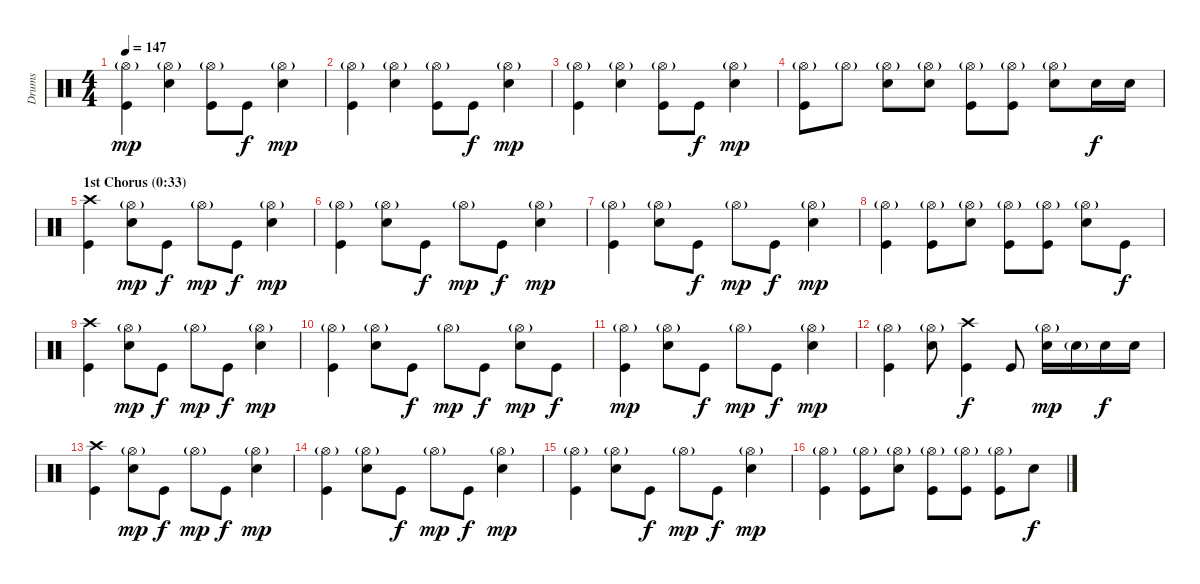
\track ("Drums" "Drums") {instrument percussion}
\staff {score}
\articulation defaults
\ts (4 4)
\tempo 147
\clef neutral
\ks c
("Hi-Hat (open)"{g} "Kick (hit)").4{dy mp} ("Hi-Hat (open)"{g} "Snare (hit) 2").4 ("Hi-Hat (open)"{g} "Kick (hit)").8 "Kick (hit)".8{dy f} ("Hi-Hat (open)"{g} "Snare (hit) 2").4{dy mp} |
("Hi-Hat (open)"{g} "Kick (hit)").4 ("Hi-Hat (open)"{g} "Snare (hit) 2").4 ("Hi-Hat (open)"{g} "Kick (hit)").8 "Kick (hit)".8{dy f} ("Hi-Hat (open)"{g} "Snare (hit) 2").4{dy mp} |
("Hi-Hat (open)"{g} "Kick (hit)").4 ("Hi-Hat (open)"{g} "Snare (hit) 2").4 ("Hi-Hat (open)"{g} "Kick (hit)").8 "Kick (hit)".8{dy f} ("Hi-Hat (open)"{g} "Snare (hit) 2").4{dy mp} |
("Hi-Hat (open)"{g} "Kick (hit)").8 "Hi-Hat (open)"{g}.8 ("Hi-Hat (open)"{g} "Snare (hit) 2").8 ("Hi-Hat (open)"{g} "Snare (hit) 2").8 ("Hi-Hat (open)"{g} "Kick (hit)").8 ("Hi-Hat (open)"{g} "Kick (hit)").8 ("Hi-Hat (open)"{g} "Snare (hit) 2").8 "Snare (hit) 2".16{dy f} "Snare (hit) 2".16 |
\section ("" "1st Chorus (0:33)")
("Crash high (hit)" "Kick (hit)").4 ("Hi-Hat (open)"{g} "Snare (hit) 2").8{dy mp} "Kick (hit)".8{dy f} "Hi-Hat (open)"{g}.8{dy mp} "Kick (hit)".8{dy f} ("Hi-Hat (open)"{g} "Snare (hit) 2").4{dy mp} |
("Hi-Hat (open)"{g} "Kick (hit)").4 ("Hi-Hat (open)"{g} "Snare (hit) 2").8 "Kick (hit)".8{dy f} "Hi-Hat (open)"{g}.8{dy mp} "Kick (hit)".8{dy f} ("Hi-Hat (open)"{g} "Snare (hit) 2").4{dy mp} |
("Hi-Hat (open)"{g} "Kick (hit)").4 ("Hi-Hat (open)"{g} "Snare (hit) 2").8 "Kick (hit)".8{dy f} "Hi-Hat (open)"{g}.8{dy mp} "Kick (hit)".8{dy f} ("Hi-Hat (open)"{g} "Snare (hit) 2").4{dy mp} |
("Hi-Hat (open)"{g} "Kick (hit)").4 ("Hi-Hat (open)"{g} "Kick (hit)").8 ("Hi-Hat (open)"{g} "Snare (hit) 2").8 ("Hi-Hat (open)"{g} "Kick (hit)").8 ("Hi-Hat (open)"{g} "Kick (hit)").8 ("Hi-Hat (open)"{g} "Snare (hit) 2").8 "Kick (hit)".8{dy f} |
("Crash high (hit)" "Kick (hit)").4 ("Hi-Hat (open)"{g} "Snare (hit) 2").8{dy mp} "Kick (hit)".8{dy f} "Hi-Hat (open)"{g}.8{dy mp} "Kick (hit)".8{dy f} ("Hi-Hat (open)"{g} "Snare (hit) 2").4{dy mp} |
("Hi-Hat (open)"{g} "Kick (hit)").4 ("Hi-Hat (open)"{g} "Snare (hit) 2").8 "Kick (hit)".8{dy f} "Hi-Hat (open)"{g}.8{dy mp} "Kick (hit)".8{dy f} ("Hi-Hat (open)"{g} "Snare (hit) 2").8{dy mp} "Kick (hit)".8{dy f} |
("Hi-Hat (open)"{g} "Kick (hit)").4{dy mp} ("Hi-Hat (open)"{g} "Snare (hit) 2").8 "Kick (hit)".8{dy f} "Hi-Hat (open)"{g}.8{dy mp} "Kick (hit)".8{dy f} ("Hi-Hat (open)"{g} "Snare (hit) 2").4{dy mp} |
("Hi-Hat (open)"{g} "Kick (hit)").4 ("Hi-Hat (open)"{g} "Snare (hit) 2").8 ("Crash high (hit)" "Kick (hit)").4{dy f} "Kick (hit)".8 ("Hi-Hat (open)"{g} "Snare (hit) 2").16{dy mp} "Snare (hit) 2"{g}.16 "Snare (hit) 2".16{dy f} "Snare (hit) 2".16 |
("Crash high (hit)" "Kick (hit)").4 ("Hi-Hat (open)"{g} "Snare (hit) 2").8{dy mp} "Kick (hit)".8{dy f} "Hi-Hat (open)"{g}.8{dy mp} "Kick (hit)".8{dy f} ("Hi-Hat (open)"{g} "Snare (hit) 2").4{dy mp} |
("Hi-Hat (open)"{g} "Kick (hit)").4 ("Hi-Hat (open)"{g} "Snare (hit) 2").8 "Kick (hit)".8{dy f} "Hi-Hat (open)"{g}.8{dy mp} "Kick (hit)".8{dy f} ("Hi-Hat (open)"{g} "Snare (hit) 2").4{dy mp} |
("Hi-Hat (open)"{g} "Kick (hit)").4 ("Hi-Hat (open)"{g} "Snare (hit) 2").8 "Kick (hit)".8{dy f} "Hi-Hat (open)"{g}.8{dy mp} "Kick (hit)".8{dy f} ("Hi-Hat (open)"{g} "Snare (hit) 2").4{dy mp} |
("Hi-Hat (open)"{g} "Kick (hit)").4 ("Hi-Hat (open)"{g} "Kick (hit)").8 ("Hi-Hat (open)"{g} "Snare (hit) 2").8 ("Hi-Hat (open)"{g} "Kick (hit)").8 ("Hi-Hat (open)"{g} "Kick (hit)").8 ("Hi-Hat (open)"{g} "Kick (hit)").8 "Snare (hit) 2".8{dy f}
